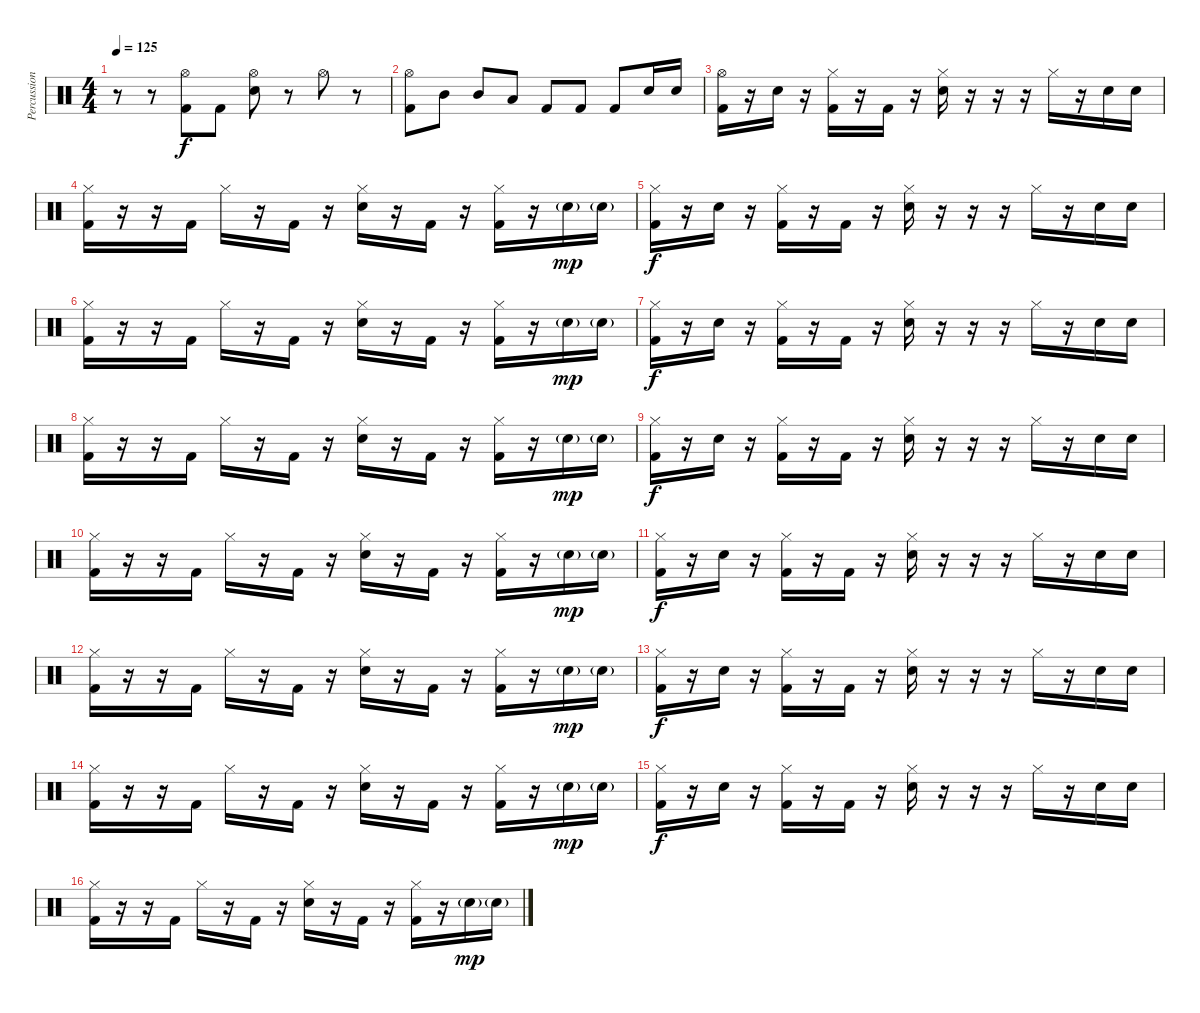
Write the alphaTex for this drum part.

\track ("Percussion" "Percussion") {instrument percussion}
\staff {score}
\articulation defaults
\ts (4 4)
\tempo 125
\clef neutral
\ks c
r.8{dy f} r.8 ("Hi-Hat (open)" "Kick (hit) 2").8 "Kick (hit) 2".8 ("Hi-Hat (open)" "Electric Snare (hit)").8 r.8 "Hi-Hat (open)".8 r.8 |
("Hi-Hat (open)" "Kick (hit) 2").8 "Mid Tom (hit)".8 "Mid Tom (hit)".8 "Low Tom (hit)".8 "Kick (hit) 2".8 "Kick (hit) 2".8 "Kick (hit) 2".8 "Electric Snare (hit)".16 "Electric Snare (hit)".16 |
("Hi-Hat (open)" "Kick (hit) 2").16 r.16 "Electric Snare (hit)".16 r.16 ("Hi-Hat (closed)" "Kick (hit) 2").16 r.16 "Kick (hit) 2".16 r.16 ("Hi-Hat (closed)" "Electric Snare (hit)").16 r.16 r.16 r.16 "Hi-Hat (closed)".16 r.16 "Electric Snare (hit)".16 "Electric Snare (hit)".16 |
("Hi-Hat (closed)" "Kick (hit) 2").16 r.16 r.16 "Kick (hit) 2".16 "Hi-Hat (closed)".16 r.16 "Kick (hit) 2".16 r.16 ("Hi-Hat (closed)" "Electric Snare (hit)").16 r.16 "Kick (hit) 2".16 r.16 ("Hi-Hat (closed)" "Kick (hit) 2").16 r.16 "Electric Snare (hit)"{g}.16{dy mp} "Electric Snare (hit)"{g}.16 |
("Hi-Hat (closed)" "Kick (hit) 2").16{dy f} r.16 "Electric Snare (hit)".16 r.16 ("Hi-Hat (closed)" "Kick (hit) 2").16 r.16 "Kick (hit) 2".16 r.16 ("Hi-Hat (closed)" "Electric Snare (hit)").16 r.16 r.16 r.16 "Hi-Hat (closed)".16 r.16 "Electric Snare (hit)".16 "Electric Snare (hit)".16 |
("Hi-Hat (closed)" "Kick (hit) 2").16 r.16 r.16 "Kick (hit) 2".16 "Hi-Hat (closed)".16 r.16 "Kick (hit) 2".16 r.16 ("Hi-Hat (closed)" "Electric Snare (hit)").16 r.16 "Kick (hit) 2".16 r.16 ("Hi-Hat (closed)" "Kick (hit) 2").16 r.16 "Electric Snare (hit)"{g}.16{dy mp} "Electric Snare (hit)"{g}.16 |
("Hi-Hat (closed)" "Kick (hit) 2").16{dy f} r.16 "Electric Snare (hit)".16 r.16 ("Hi-Hat (closed)" "Kick (hit) 2").16 r.16 "Kick (hit) 2".16 r.16 ("Hi-Hat (closed)" "Electric Snare (hit)").16 r.16 r.16 r.16 "Hi-Hat (closed)".16 r.16 "Electric Snare (hit)".16 "Electric Snare (hit)".16 |
("Hi-Hat (closed)" "Kick (hit) 2").16 r.16 r.16 "Kick (hit) 2".16 "Hi-Hat (closed)".16 r.16 "Kick (hit) 2".16 r.16 ("Hi-Hat (closed)" "Electric Snare (hit)").16 r.16 "Kick (hit) 2".16 r.16 ("Hi-Hat (closed)" "Kick (hit) 2").16 r.16 "Electric Snare (hit)"{g}.16{dy mp} "Electric Snare (hit)"{g}.16 |
("Hi-Hat (closed)" "Kick (hit) 2").16{dy f} r.16 "Electric Snare (hit)".16 r.16 ("Hi-Hat (closed)" "Kick (hit) 2").16 r.16 "Kick (hit) 2".16 r.16 ("Hi-Hat (closed)" "Electric Snare (hit)").16 r.16 r.16 r.16 "Hi-Hat (closed)".16 r.16 "Electric Snare (hit)".16 "Electric Snare (hit)".16 |
("Hi-Hat (closed)" "Kick (hit) 2").16 r.16 r.16 "Kick (hit) 2".16 "Hi-Hat (closed)".16 r.16 "Kick (hit) 2".16 r.16 ("Hi-Hat (closed)" "Electric Snare (hit)").16 r.16 "Kick (hit) 2".16 r.16 ("Hi-Hat (closed)" "Kick (hit) 2").16 r.16 "Electric Snare (hit)"{g}.16{dy mp} "Electric Snare (hit)"{g}.16 |
("Hi-Hat (closed)" "Kick (hit) 2").16{dy f} r.16 "Electric Snare (hit)".16 r.16 ("Hi-Hat (closed)" "Kick (hit) 2").16 r.16 "Kick (hit) 2".16 r.16 ("Hi-Hat (closed)" "Electric Snare (hit)").16 r.16 r.16 r.16 "Hi-Hat (closed)".16 r.16 "Electric Snare (hit)".16 "Electric Snare (hit)".16 |
("Hi-Hat (closed)" "Kick (hit) 2").16 r.16 r.16 "Kick (hit) 2".16 "Hi-Hat (closed)".16 r.16 "Kick (hit) 2".16 r.16 ("Hi-Hat (closed)" "Electric Snare (hit)").16 r.16 "Kick (hit) 2".16 r.16 ("Hi-Hat (closed)" "Kick (hit) 2").16 r.16 "Electric Snare (hit)"{g}.16{dy mp} "Electric Snare (hit)"{g}.16 |
("Hi-Hat (closed)" "Kick (hit) 2").16{dy f} r.16 "Electric Snare (hit)".16 r.16 ("Hi-Hat (closed)" "Kick (hit) 2").16 r.16 "Kick (hit) 2".16 r.16 ("Hi-Hat (closed)" "Electric Snare (hit)").16 r.16 r.16 r.16 "Hi-Hat (closed)".16 r.16 "Electric Snare (hit)".16 "Electric Snare (hit)".16 |
("Hi-Hat (closed)" "Kick (hit) 2").16 r.16 r.16 "Kick (hit) 2".16 "Hi-Hat (closed)".16 r.16 "Kick (hit) 2".16 r.16 ("Hi-Hat (closed)" "Electric Snare (hit)").16 r.16 "Kick (hit) 2".16 r.16 ("Hi-Hat (closed)" "Kick (hit) 2").16 r.16 "Electric Snare (hit)"{g}.16{dy mp} "Electric Snare (hit)"{g}.16 |
("Hi-Hat (closed)" "Kick (hit) 2").16{dy f} r.16 "Electric Snare (hit)".16 r.16 ("Hi-Hat (closed)" "Kick (hit) 2").16 r.16 "Kick (hit) 2".16 r.16 ("Hi-Hat (closed)" "Electric Snare (hit)").16 r.16 r.16 r.16 "Hi-Hat (closed)".16 r.16 "Electric Snare (hit)".16 "Electric Snare (hit)".16 |
("Hi-Hat (closed)" "Kick (hit) 2").16 r.16 r.16 "Kick (hit) 2".16 "Hi-Hat (closed)".16 r.16 "Kick (hit) 2".16 r.16 ("Hi-Hat (closed)" "Electric Snare (hit)").16 r.16 "Kick (hit) 2".16 r.16 ("Hi-Hat (closed)" "Kick (hit) 2").16 r.16 "Electric Snare (hit)"{g}.16{dy mp} "Electric Snare (hit)"{g}.16
